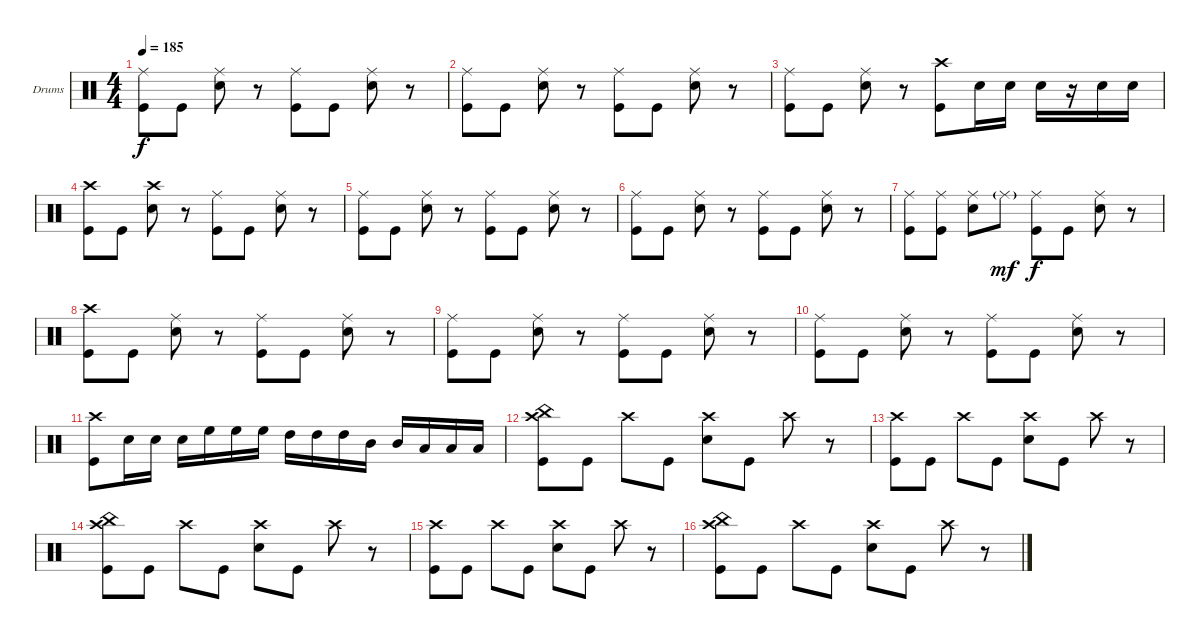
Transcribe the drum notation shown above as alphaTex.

\defaultSystemsLayout 4
\bracketExtendMode nobrackets
\firstSystemTrackNameOrientation horizontal
\otherSystemsTrackNameOrientation horizontal
\track ("Drumkit" "Drums") {instrument percussion}
\staff {score}
\articulation defaults
\ts (4 4)
\tempo 185
\clef neutral
\ks c
("Ride (middle)" "Kick (hit)").8{dy f} "Kick (hit)".8 ("Ride (middle)" "Snare (hit) 2").8 r.8 ("Ride (middle)" "Kick (hit)").8 "Kick (hit)".8 ("Ride (middle)" "Snare (hit) 2").8 r.8 |
("Ride (middle)" "Kick (hit)").8 "Kick (hit)".8 ("Ride (middle)" "Snare (hit) 2").8 r.8 ("Ride (middle)" "Kick (hit)").8 "Kick (hit)".8 ("Ride (middle)" "Snare (hit) 2").8 r.8 |
("Ride (middle)" "Kick (hit)").8 "Kick (hit)".8 ("Ride (middle)" "Snare (hit) 2").8 r.8 ("Crash high (hit)" "Kick (hit)").8 "Snare (hit) 2".16 "Snare (hit) 2".16 "Snare (hit) 2".16 r.16 "Snare (hit) 2".16 "Snare (hit) 2".16 |
("Crash high (hit)" "Kick (hit)").8 "Kick (hit)".8 ("Crash high (hit)" "Snare (hit) 2").8 r.8 ("Ride (middle)" "Kick (hit)").8 "Kick (hit)".8 ("Ride (middle)" "Snare (hit) 2").8 r.8 |
("Ride (middle)" "Kick (hit)").8 "Kick (hit)".8 ("Ride (middle)" "Snare (hit) 2").8 r.8 ("Ride (middle)" "Kick (hit)").8 "Kick (hit)".8 ("Ride (middle)" "Snare (hit) 2").8 r.8 |
("Ride (middle)" "Kick (hit)").8 "Kick (hit)".8 ("Ride (middle)" "Snare (hit) 2").8 r.8 ("Ride (middle)" "Kick (hit)").8 "Kick (hit)".8 ("Ride (middle)" "Snare (hit) 2").8 r.8 |
("Ride (middle)" "Kick (hit)").8 ("Ride (middle)" "Kick (hit)").8 ("Ride (middle)" "Snare (hit) 2").8 "Ride (middle)"{g}.8{dy mf} ("Ride (middle)" "Kick (hit)").8{dy f} "Kick (hit)".8 ("Ride (middle)" "Snare (hit) 2").8 r.8 |
("Crash high (hit)" "Kick (hit)").8 "Kick (hit)".8 ("Ride (middle)" "Snare (hit) 2").8 r.8 ("Ride (middle)" "Kick (hit)").8 "Kick (hit)".8 ("Ride (middle)" "Snare (hit) 2").8 r.8 |
("Ride (middle)" "Kick (hit)").8 "Kick (hit)".8 ("Ride (middle)" "Snare (hit) 2").8 r.8 ("Ride (middle)" "Kick (hit)").8 "Kick (hit)".8 ("Ride (middle)" "Snare (hit) 2").8 r.8 |
("Ride (middle)" "Kick (hit)").8 "Kick (hit)".8 ("Ride (middle)" "Snare (hit) 2").8 r.8 ("Ride (middle)" "Kick (hit)").8 "Kick (hit)".8 ("Ride (middle)" "Snare (hit) 2").8 r.8 |
("Crash high (hit)" "Kick (hit)").8 "Snare (hit) 2".16 "Snare (hit) 2".16 "Snare (hit) 2".16 "High Floor Tom (hit)".16 "High Floor Tom (hit)".16 "High Floor Tom (hit)".16 "High Tom (hit)".16 "High Tom (hit)".16 "High Tom (hit)".16 "Mid Tom (hit)".16 "Mid Tom (hit)".16 "Low Tom (hit)".16 "Low Tom (hit)".16 "Low Tom (hit)".16 |
("Crash high (hit)" "China (hit)" "Kick (hit)").8 "Kick (hit)".8 "Crash high (hit)".8 "Kick (hit)".8 ("Crash high (hit)" "Snare (hit) 2").8 "Kick (hit)".8 "Crash high (hit)".8 r.8 |
("Crash high (hit)" "Kick (hit)").8 "Kick (hit)".8 "Crash high (hit)".8 "Kick (hit)".8 ("Crash high (hit)" "Snare (hit) 2").8 "Kick (hit)".8 "Crash high (hit)".8 r.8 |
("Crash high (hit)" "China (hit)" "Kick (hit)").8 "Kick (hit)".8 "Crash high (hit)".8 "Kick (hit)".8 ("Crash high (hit)" "Snare (hit) 2").8 "Kick (hit)".8 "Crash high (hit)".8 r.8 |
("Crash high (hit)" "Kick (hit)").8 "Kick (hit)".8 "Crash high (hit)".8 "Kick (hit)".8 ("Crash high (hit)" "Snare (hit) 2").8 "Kick (hit)".8 "Crash high (hit)".8 r.8 |
("Crash high (hit)" "China (hit)" "Kick (hit)").8 "Kick (hit)".8 "Crash high (hit)".8 "Kick (hit)".8 ("Crash high (hit)" "Snare (hit) 2").8 "Kick (hit)".8 "Crash high (hit)".8 r.8
